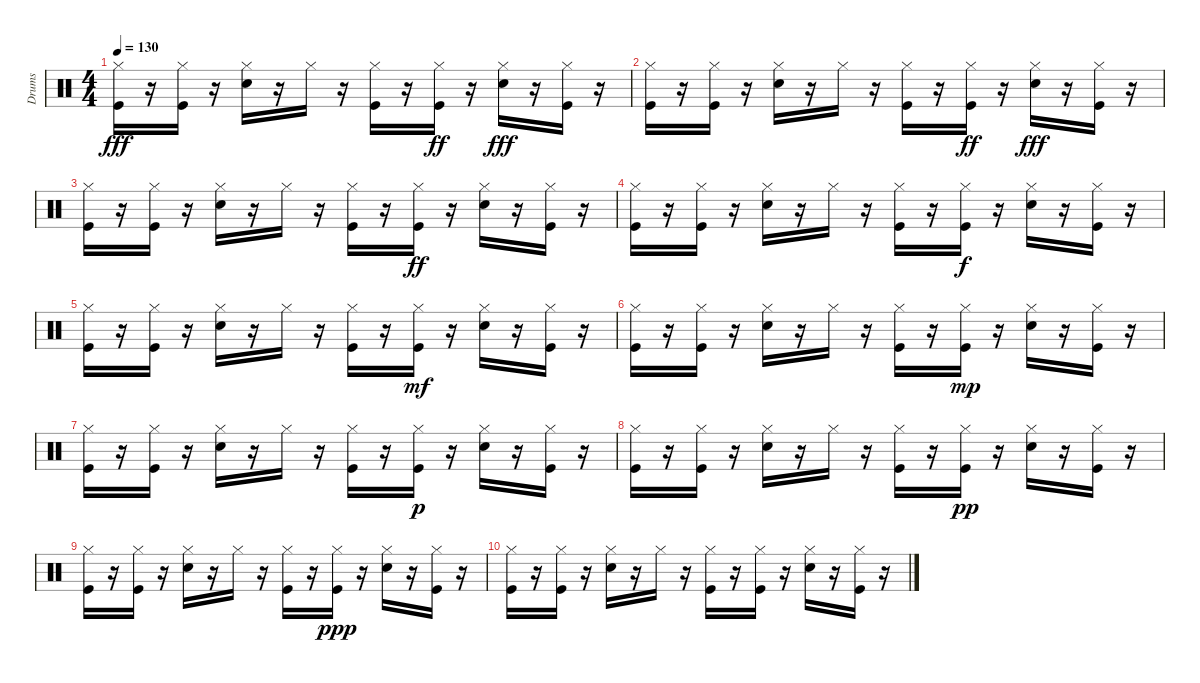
\track ("Drums" "Drums") {instrument percussion}
\staff {score}
\articulation defaults
\ts (4 4)
\tempo 130
\clef neutral
\ks c
("Hi-Hat (closed)" "Kick (hit)").16{dy fff} r.16 ("Hi-Hat (closed)" "Kick (hit)").16 r.16 ("Hi-Hat (closed)" "Electric Snare (hit)").16 r.16 "Hi-Hat (closed)".16 r.16 ("Hi-Hat (closed)" "Kick (hit)").16 r.16 ("Hi-Hat (closed)" "Kick (hit)").16{dy ff} r.16 ("Hi-Hat (closed)" "Electric Snare (hit)").16{dy fff} r.16 ("Hi-Hat (closed)" "Kick (hit)").16 r.16 |
("Hi-Hat (closed)" "Kick (hit)").16 r.16 ("Hi-Hat (closed)" "Kick (hit)").16 r.16 ("Hi-Hat (closed)" "Electric Snare (hit)").16 r.16 "Hi-Hat (closed)".16 r.16 ("Hi-Hat (closed)" "Kick (hit)").16 r.16 ("Hi-Hat (closed)" "Kick (hit)").16{dy ff} r.16 ("Hi-Hat (closed)" "Electric Snare (hit)").16{dy fff} r.16 ("Hi-Hat (closed)" "Kick (hit)").16 r.16 |
("Hi-Hat (closed)" "Kick (hit)").16 r.16 ("Hi-Hat (closed)" "Kick (hit)").16 r.16 ("Hi-Hat (closed)" "Electric Snare (hit)").16 r.16 "Hi-Hat (closed)".16 r.16 ("Hi-Hat (closed)" "Kick (hit)").16 r.16 ("Hi-Hat (closed)" "Kick (hit)").16{dy ff} r.16 ("Hi-Hat (closed)" "Electric Snare (hit)").16 r.16 ("Hi-Hat (closed)" "Kick (hit)").16 r.16 |
("Hi-Hat (closed)" "Kick (hit)").16 r.16 ("Hi-Hat (closed)" "Kick (hit)").16 r.16 ("Hi-Hat (closed)" "Electric Snare (hit)").16 r.16 "Hi-Hat (closed)".16 r.16 ("Hi-Hat (closed)" "Kick (hit)").16 r.16 ("Hi-Hat (closed)" "Kick (hit)").16{dy f} r.16 ("Hi-Hat (closed)" "Electric Snare (hit)").16 r.16 ("Hi-Hat (closed)" "Kick (hit)").16 r.16 |
("Hi-Hat (closed)" "Kick (hit)").16 r.16 ("Hi-Hat (closed)" "Kick (hit)").16 r.16 ("Hi-Hat (closed)" "Electric Snare (hit)").16 r.16 "Hi-Hat (closed)".16 r.16 ("Hi-Hat (closed)" "Kick (hit)").16 r.16 ("Hi-Hat (closed)" "Kick (hit)").16{dy mf} r.16 ("Hi-Hat (closed)" "Electric Snare (hit)").16 r.16 ("Hi-Hat (closed)" "Kick (hit)").16 r.16 |
("Hi-Hat (closed)" "Kick (hit)").16 r.16 ("Hi-Hat (closed)" "Kick (hit)").16 r.16 ("Hi-Hat (closed)" "Electric Snare (hit)").16 r.16 "Hi-Hat (closed)".16 r.16 ("Hi-Hat (closed)" "Kick (hit)").16 r.16 ("Hi-Hat (closed)" "Kick (hit)").16{dy mp} r.16 ("Hi-Hat (closed)" "Electric Snare (hit)").16 r.16 ("Hi-Hat (closed)" "Kick (hit)").16 r.16 |
("Hi-Hat (closed)" "Kick (hit)").16 r.16 ("Hi-Hat (closed)" "Kick (hit)").16 r.16 ("Hi-Hat (closed)" "Electric Snare (hit)").16 r.16 "Hi-Hat (closed)".16 r.16 ("Hi-Hat (closed)" "Kick (hit)").16 r.16 ("Hi-Hat (closed)" "Kick (hit)").16{dy p} r.16 ("Hi-Hat (closed)" "Electric Snare (hit)").16 r.16 ("Hi-Hat (closed)" "Kick (hit)").16 r.16 |
("Hi-Hat (closed)" "Kick (hit)").16 r.16 ("Hi-Hat (closed)" "Kick (hit)").16 r.16 ("Hi-Hat (closed)" "Electric Snare (hit)").16 r.16 "Hi-Hat (closed)".16 r.16 ("Hi-Hat (closed)" "Kick (hit)").16 r.16 ("Hi-Hat (closed)" "Kick (hit)").16{dy pp} r.16 ("Hi-Hat (closed)" "Electric Snare (hit)").16 r.16 ("Hi-Hat (closed)" "Kick (hit)").16 r.16 |
("Hi-Hat (closed)" "Kick (hit)").16 r.16 ("Hi-Hat (closed)" "Kick (hit)").16 r.16 ("Hi-Hat (closed)" "Electric Snare (hit)").16 r.16 "Hi-Hat (closed)".16 r.16 ("Hi-Hat (closed)" "Kick (hit)").16 r.16 ("Hi-Hat (closed)" "Kick (hit)").16{dy ppp} r.16 ("Hi-Hat (closed)" "Electric Snare (hit)").16 r.16 ("Hi-Hat (closed)" "Kick (hit)").16 r.16 |
("Hi-Hat (closed)" "Kick (hit)").16 r.16 ("Hi-Hat (closed)" "Kick (hit)").16 r.16 ("Hi-Hat (closed)" "Electric Snare (hit)").16 r.16 "Hi-Hat (closed)".16 r.16 ("Hi-Hat (closed)" "Kick (hit)").16 r.16 ("Hi-Hat (closed)" "Kick (hit)").16 r.16 ("Hi-Hat (closed)" "Electric Snare (hit)").16 r.16 ("Hi-Hat (closed)" "Kick (hit)").16 r.16
